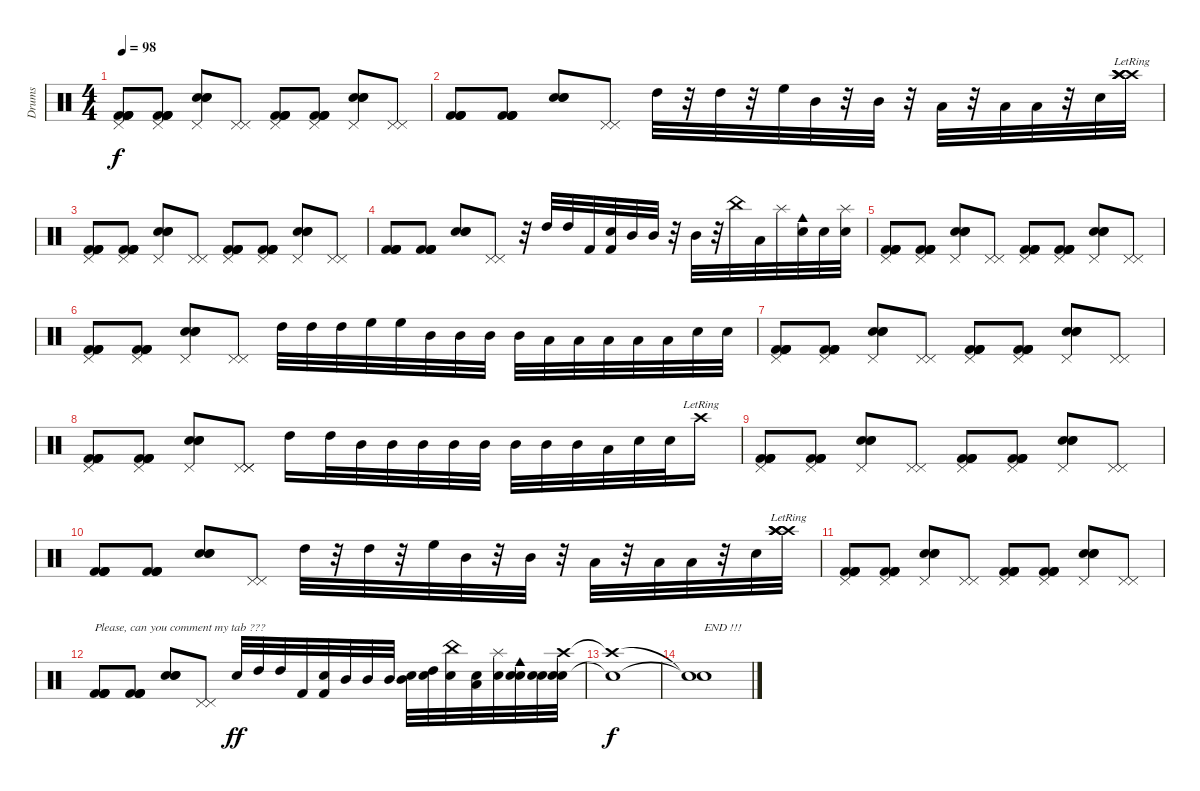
\track ("Drums" "Drums") {instrument percussion}
\staff {score}
\articulation defaults
\ts (4 4)
\tempo 98
\clef neutral
\ks c
("Pedal Hi-Hat (hit)" "Kick (hit) 2" "Kick (hit) 2" "Kick (hit) 2" "Kick (hit) 2").8{dy f} ("Pedal Hi-Hat (hit)" "Kick (hit) 2" "Kick (hit) 2" "Kick (hit) 2" "Kick (hit) 2").8 ("Pedal Hi-Hat (hit)" "Electric Snare (hit)" "Electric Snare (hit)" "Electric Snare (hit)").8 ("Pedal Hi-Hat (hit)" "Pedal Hi-Hat (hit)").8 ("Pedal Hi-Hat (hit)" "Kick (hit) 2" "Kick (hit) 2" "Kick (hit) 2" "Kick (hit) 2").8 ("Pedal Hi-Hat (hit)" "Kick (hit) 2" "Kick (hit) 2" "Kick (hit) 2" "Kick (hit) 2").8 ("Pedal Hi-Hat (hit)" "Electric Snare (hit)" "Electric Snare (hit)" "Electric Snare (hit)").8 ("Pedal Hi-Hat (hit)" "Pedal Hi-Hat (hit)").8 |
("Kick (hit) 2" "Kick (hit) 2" "Kick (hit) 2" "Kick (hit) 2").8 ("Kick (hit) 2" "Kick (hit) 2" "Kick (hit) 2" "Kick (hit) 2").8 ("Electric Snare (hit)" "Electric Snare (hit)" "Electric Snare (hit)").8 ("Pedal Hi-Hat (hit)" "Pedal Hi-Hat (hit)").8 "High Tom (hit)".32 r.32 "High Tom (hit)".32 r.32 "High Floor Tom (hit)".32 "Mid Tom (hit)".32 r.32 "Mid Tom (hit)".32 r.32 "Low Tom (hit)".32 r.32 "Low Tom (hit)".32 "Low Floor Tom (hit)".32 r.32 "Electric Snare (hit)".32 ("Crash high (hit)"{lr} "Crash high (hit)"{lr} "Crash high (hit)"{lr} "Crash high (hit)"{lr}).32 |
("Pedal Hi-Hat (hit)" "Kick (hit) 2" "Kick (hit) 2" "Kick (hit) 2" "Kick (hit) 2").8 ("Pedal Hi-Hat (hit)" "Kick (hit) 2" "Kick (hit) 2" "Kick (hit) 2" "Kick (hit) 2").8 ("Pedal Hi-Hat (hit)" "Electric Snare (hit)" "Electric Snare (hit)" "Electric Snare (hit)").8 ("Pedal Hi-Hat (hit)" "Pedal Hi-Hat (hit)").8 ("Pedal Hi-Hat (hit)" "Kick (hit) 2" "Kick (hit) 2" "Kick (hit) 2" "Kick (hit) 2").8 ("Pedal Hi-Hat (hit)" "Kick (hit) 2" "Kick (hit) 2" "Kick (hit) 2" "Kick (hit) 2").8 ("Pedal Hi-Hat (hit)" "Electric Snare (hit)" "Electric Snare (hit)" "Electric Snare (hit)").8 ("Pedal Hi-Hat (hit)" "Pedal Hi-Hat (hit)").8 |
("Kick (hit) 2" "Kick (hit) 2" "Kick (hit) 2" "Kick (hit) 2").8 ("Kick (hit) 2" "Kick (hit) 2" "Kick (hit) 2" "Kick (hit) 2").8 ("Electric Snare (hit)" "Electric Snare (hit)" "Electric Snare (hit)").8 ("Pedal Hi-Hat (hit)" "Pedal Hi-Hat (hit)").8 r.32 "High Tom (hit)".32 "High Tom (hit)".32 "Kick (hit) 2".32 ("Electric Snare (hit)" "Kick (hit) 2").32 "Mid Tom (hit)".32 "Mid Tom (hit)".32 r.32 "Mid Tom (hit)".32 r.32 "China (hit)".32 "Low Tom (hit)".32 "Splash (hit)".32 ("Electric Snare (hit)" "Cowbell medium (hit)").32 "Electric Snare (hit)".32 ("Splash (hit)" "Electric Snare (hit)").32 |
("Pedal Hi-Hat (hit)" "Kick (hit) 2" "Kick (hit) 2" "Kick (hit) 2" "Kick (hit) 2").8 ("Pedal Hi-Hat (hit)" "Kick (hit) 2" "Kick (hit) 2" "Kick (hit) 2" "Kick (hit) 2").8 ("Pedal Hi-Hat (hit)" "Electric Snare (hit)" "Electric Snare (hit)" "Electric Snare (hit)").8 ("Pedal Hi-Hat (hit)" "Pedal Hi-Hat (hit)").8 ("Pedal Hi-Hat (hit)" "Kick (hit) 2" "Kick (hit) 2" "Kick (hit) 2" "Kick (hit) 2").8 ("Pedal Hi-Hat (hit)" "Kick (hit) 2" "Kick (hit) 2" "Kick (hit) 2" "Kick (hit) 2").8 ("Pedal Hi-Hat (hit)" "Electric Snare (hit)" "Electric Snare (hit)" "Electric Snare (hit)").8 ("Pedal Hi-Hat (hit)" "Pedal Hi-Hat (hit)").8 |
("Pedal Hi-Hat (hit)" "Kick (hit) 2" "Kick (hit) 2" "Kick (hit) 2" "Kick (hit) 2").8 ("Pedal Hi-Hat (hit)" "Kick (hit) 2" "Kick (hit) 2" "Kick (hit) 2" "Kick (hit) 2").8 ("Pedal Hi-Hat (hit)" "Electric Snare (hit)" "Electric Snare (hit)" "Electric Snare (hit)").8 ("Pedal Hi-Hat (hit)" "Pedal Hi-Hat (hit)").8 "High Tom (hit)".32 "High Tom (hit)".32 "High Tom (hit)".32 "High Floor Tom (hit)".32 "High Floor Tom (hit)".32 "Mid Tom (hit)".32 "Mid Tom (hit)".32 "Mid Tom (hit)".32 "Mid Tom (hit)".32 "Low Tom (hit)".32 "Low Tom (hit)".32 "Low Tom (hit)".32 "Low Floor Tom (hit)".32 "Low Floor Tom (hit)".32 "Electric Snare (hit)".32 "Electric Snare (hit)".32 |
("Pedal Hi-Hat (hit)" "Kick (hit) 2" "Kick (hit) 2" "Kick (hit) 2" "Kick (hit) 2").8 ("Pedal Hi-Hat (hit)" "Kick (hit) 2" "Kick (hit) 2" "Kick (hit) 2" "Kick (hit) 2").8 ("Pedal Hi-Hat (hit)" "Electric Snare (hit)" "Electric Snare (hit)" "Electric Snare (hit)").8 ("Pedal Hi-Hat (hit)" "Pedal Hi-Hat (hit)").8 ("Pedal Hi-Hat (hit)" "Kick (hit) 2" "Kick (hit) 2" "Kick (hit) 2" "Kick (hit) 2").8 ("Pedal Hi-Hat (hit)" "Kick (hit) 2" "Kick (hit) 2" "Kick (hit) 2" "Kick (hit) 2").8 ("Pedal Hi-Hat (hit)" "Electric Snare (hit)" "Electric Snare (hit)" "Electric Snare (hit)").8 ("Pedal Hi-Hat (hit)" "Pedal Hi-Hat (hit)").8 |
("Pedal Hi-Hat (hit)" "Kick (hit) 2" "Kick (hit) 2" "Kick (hit) 2" "Kick (hit) 2").8 ("Pedal Hi-Hat (hit)" "Kick (hit) 2" "Kick (hit) 2" "Kick (hit) 2" "Kick (hit) 2").8 ("Pedal Hi-Hat (hit)" "Electric Snare (hit)" "Electric Snare (hit)" "Electric Snare (hit)").8 ("Pedal Hi-Hat (hit)" "Pedal Hi-Hat (hit)" "Pedal Hi-Hat (hit)").8 "High Tom (hit)".16 "High Tom (hit)".32 "Mid Tom (hit)".32 "Mid Tom (hit)".32 "Mid Tom (hit)".32 "Mid Tom (hit)".32 "Mid Tom (hit)".32 "Mid Tom (hit)".32 "Mid Tom (hit)".32 "Mid Tom (hit)".32 "Low Tom (hit)".32 "Snare (hit) 2".32 "Electric Snare (hit)".32 "Crash high (hit)"{lr}.16 |
("Pedal Hi-Hat (hit)" "Kick (hit) 2" "Kick (hit) 2" "Kick (hit) 2" "Kick (hit) 2").8 ("Pedal Hi-Hat (hit)" "Kick (hit) 2" "Kick (hit) 2" "Kick (hit) 2" "Kick (hit) 2").8 ("Pedal Hi-Hat (hit)" "Electric Snare (hit)" "Electric Snare (hit)" "Electric Snare (hit)").8 ("Pedal Hi-Hat (hit)" "Pedal Hi-Hat (hit)").8 ("Pedal Hi-Hat (hit)" "Kick (hit) 2" "Kick (hit) 2" "Kick (hit) 2" "Kick (hit) 2").8 ("Pedal Hi-Hat (hit)" "Kick (hit) 2" "Kick (hit) 2" "Kick (hit) 2" "Kick (hit) 2").8 ("Pedal Hi-Hat (hit)" "Electric Snare (hit)" "Electric Snare (hit)" "Electric Snare (hit)").8 ("Pedal Hi-Hat (hit)" "Pedal Hi-Hat (hit)").8 |
("Kick (hit) 2" "Kick (hit) 2" "Kick (hit) 2" "Kick (hit) 2").8 ("Kick (hit) 2" "Kick (hit) 2" "Kick (hit) 2" "Kick (hit) 2").8 ("Electric Snare (hit)" "Electric Snare (hit)" "Electric Snare (hit)").8 ("Pedal Hi-Hat (hit)" "Pedal Hi-Hat (hit)").8 "High Tom (hit)".32 r.32 "High Tom (hit)".32 r.32 "High Floor Tom (hit)".32 "Mid Tom (hit)".32 r.32 "Mid Tom (hit)".32 r.32 "Low Tom (hit)".32 r.32 "Low Tom (hit)".32 "Low Floor Tom (hit)".32 r.32 "Electric Snare (hit)".32 ("Crash high (hit)"{lr} "Crash high (hit)"{lr} "Crash high (hit)"{lr} "Crash high (hit)"{lr}).32 |
("Pedal Hi-Hat (hit)" "Kick (hit) 2" "Kick (hit) 2" "Kick (hit) 2" "Kick (hit) 2").8 ("Pedal Hi-Hat (hit)" "Kick (hit) 2" "Kick (hit) 2" "Kick (hit) 2" "Kick (hit) 2").8 ("Pedal Hi-Hat (hit)" "Electric Snare (hit)" "Electric Snare (hit)" "Electric Snare (hit)").8 ("Pedal Hi-Hat (hit)" "Pedal Hi-Hat (hit)").8 ("Pedal Hi-Hat (hit)" "Kick (hit) 2" "Kick (hit) 2" "Kick (hit) 2" "Kick (hit) 2").8 ("Pedal Hi-Hat (hit)" "Kick (hit) 2" "Kick (hit) 2" "Kick (hit) 2" "Kick (hit) 2").8 ("Pedal Hi-Hat (hit)" "Electric Snare (hit)" "Electric Snare (hit)" "Electric Snare (hit)").8 ("Pedal Hi-Hat (hit)" "Pedal Hi-Hat (hit)").8 |
("Kick (hit) 2" "Kick (hit) 2" "Kick (hit) 2" "Kick (hit) 2").8{txt "Please, can you comment my tab ???"} ("Kick (hit) 2" "Kick (hit) 2" "Kick (hit) 2" "Kick (hit) 2").8 ("Electric Snare (hit)" "Electric Snare (hit)" "Electric Snare (hit)").8 ("Pedal Hi-Hat (hit)" "Pedal Hi-Hat (hit)").8 "Snare (hit) 2".32{dy ff} "High Tom (hit)".32 "High Tom (hit)".32 "Kick (hit) 2".32 ("Electric Snare (hit)" "Kick (hit) 2").32 "Mid Tom (hit)".32 "Mid Tom (hit)".32 "Mid Tom (hit)".32 ("Mid Tom (hit)" "Snare (hit) 2").32 ("High Tom (hit)" "Snare (hit) 2").32 ("China (hit)" "Snare (hit) 2").32 ("Low Tom (hit)" "Snare (hit) 2").32 ("Splash (hit)" "Snare (hit) 2").32 ("Electric Snare (hit)" "Cowbell medium (hit)" "Snare (hit) 2").32 ("Electric Snare (hit)" "Snare (hit) 2").32 ("Crash high (hit)" "Electric Snare (hit)" "Snare (hit) 2").32 |
("Crash high (hit)"{t} "Snare (hit)"{t}).1{dy f} |
("Snare (hit)"{t} "Snare (hit)"{t}).1{txt "END !!!"}
